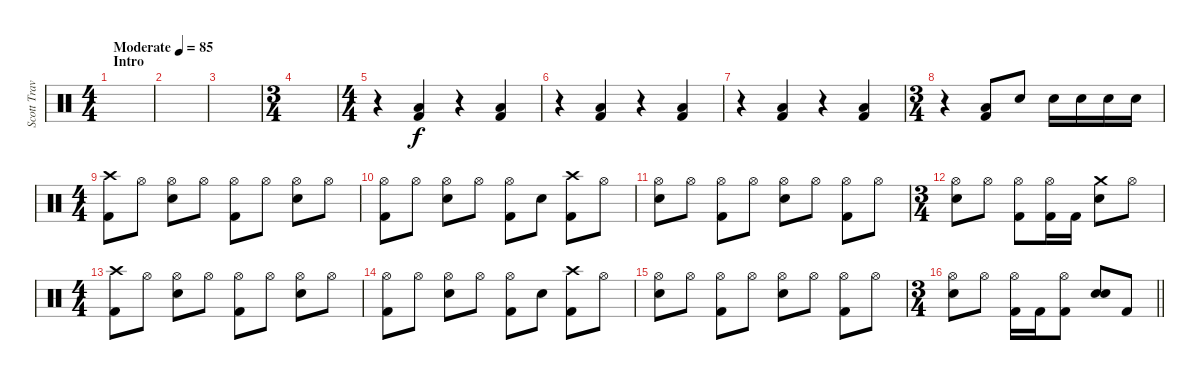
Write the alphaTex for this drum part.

\track ("Scott Travis" "Scott Trav") {instrument percussion}
\staff {score}
\articulation defaults
\ts (4 4)
\section ("" "Intro")
\tempo (85 "Moderate")
\clef neutral
\ks c
|
|
|
\ts (3 4)
|
\ts (4 4)
r.4 ("Low Floor Tom (hit)" "Kick (hit) 2").4 r.4 ("Low Floor Tom (hit)" "Kick (hit) 2").4 |
r.4 ("Low Floor Tom (hit)" "Kick (hit) 2").4 r.4 ("Low Floor Tom (hit)" "Kick (hit) 2").4 |
r.4 ("Low Floor Tom (hit)" "Kick (hit) 2").4 r.4 ("Low Floor Tom (hit)" "Kick (hit) 2").4 |
\ts (3 4)
r.4 ("Low Floor Tom (hit)" "Kick (hit) 2").8 "Snare (hit) 2".8 "Snare (hit) 2".16 "Snare (hit) 2".16 "Snare (hit) 2".16 "Snare (hit) 2".16 |
\ts (4 4)
("Crash high (hit)" "Kick (hit) 2").8 "Hi-Hat (open)".8 ("Hi-Hat (open)" "Snare (hit) 2").8 "Hi-Hat (open)".8 ("Hi-Hat (open)" "Kick (hit) 2").8 "Hi-Hat (open)".8 ("Hi-Hat (open)" "Snare (hit) 2").8 "Hi-Hat (open)".8 |
("Hi-Hat (open)" "Kick (hit) 2").8 "Hi-Hat (open)".8 ("Hi-Hat (open)" "Snare (hit) 2").8 "Hi-Hat (open)".8 ("Hi-Hat (open)" "Kick (hit) 2").8 "Snare (hit) 2".8 ("Crash high (hit)" "Kick (hit) 2").8 "Hi-Hat (open)".8 |
("Hi-Hat (open)" "Snare (hit) 2").8 "Hi-Hat (open)".8 ("Hi-Hat (open)" "Kick (hit) 2").8 "Hi-Hat (open)".8 ("Hi-Hat (open)" "Snare (hit) 2").8 "Hi-Hat (open)".8 ("Hi-Hat (open)" "Kick (hit) 2").8 "Hi-Hat (open)".8 |
\ts (3 4)
("Hi-Hat (open)" "Snare (hit) 2").8 "Hi-Hat (open)".8 ("Hi-Hat (open)" "Kick (hit) 2").8 ("Hi-Hat (open)" "Kick (hit) 2").16 "Kick (hit) 2".16 ("Crash medium (hit)" "Snare (hit) 2").8 "Hi-Hat (open)".8 |
\ts (4 4)
("Crash high (hit)" "Kick (hit) 2").8 "Hi-Hat (open)".8 ("Hi-Hat (open)" "Snare (hit) 2").8 "Hi-Hat (open)".8 ("Hi-Hat (open)" "Kick (hit) 2").8 "Hi-Hat (open)".8 ("Hi-Hat (open)" "Snare (hit) 2").8 "Hi-Hat (open)".8 |
("Hi-Hat (open)" "Kick (hit) 2").8 "Hi-Hat (open)".8 ("Hi-Hat (open)" "Snare (hit) 2").8 "Hi-Hat (open)".8 ("Hi-Hat (open)" "Kick (hit) 2").8 "Snare (hit) 2".8 ("Crash high (hit)" "Kick (hit) 2").8 "Hi-Hat (open)".8 |
("Hi-Hat (open)" "Snare (hit) 2").8 "Hi-Hat (open)".8 ("Hi-Hat (open)" "Kick (hit) 2").8 "Hi-Hat (open)".8 ("Hi-Hat (open)" "Snare (hit) 2").8 "Hi-Hat (open)".8 ("Hi-Hat (open)" "Kick (hit) 2").8 "Hi-Hat (open)".8 |
\ts (3 4)
\barLineRight lightlight
("Hi-Hat (open)" "Snare (hit) 2").8 "Hi-Hat (open)".8 ("Hi-Hat (open)" "Kick (hit) 2").16 "Kick (hit) 2".16 ("Hi-Hat (open)" "Kick (hit) 2").8 ("Snare (hit) 2" "Snare (hit) 2").8 "Kick (hit) 2".8
